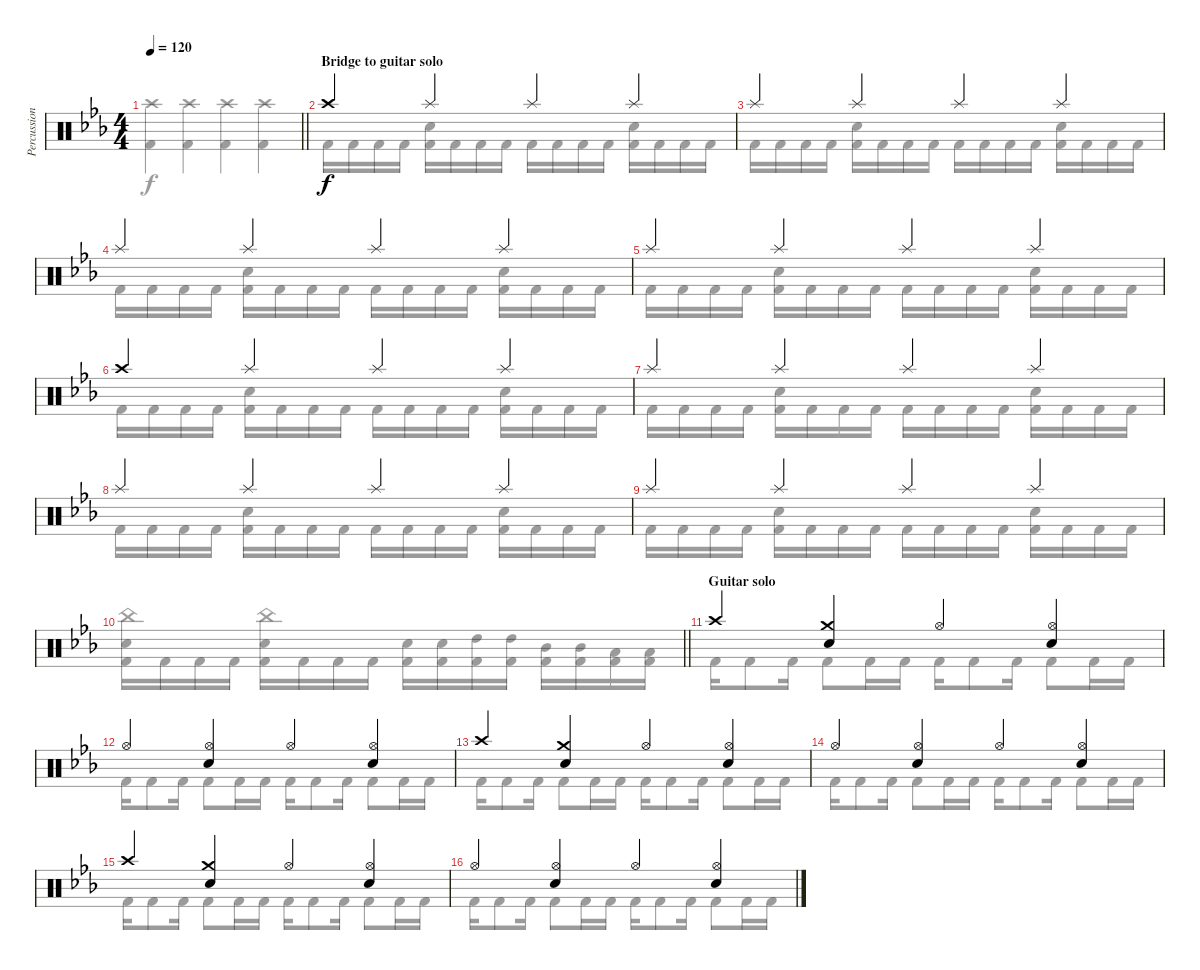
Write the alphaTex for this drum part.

\track ("Percussion" "Percussion") {instrument percussion}
\staff {score}
\articulation defaults
\voice
\ts (4 4)
\tempo 120
\clef neutral
\barLineRight lightlight
\ks cminor
|
\section ("" "Bridge to guitar solo")
"Crash high (hit)".4 "Splash (hit)".4 "Splash (hit)".4 "Splash (hit)".4 |
"Splash (hit)".4 "Splash (hit)".4 "Splash (hit)".4 "Splash (hit)".4 |
"Splash (hit)".4 "Splash (hit)".4 "Splash (hit)".4 "Splash (hit)".4 |
"Splash (hit)".4 "Splash (hit)".4 "Splash (hit)".4 "Splash (hit)".4 |
"Crash high (hit)".4 "Splash (hit)".4 "Splash (hit)".4 "Splash (hit)".4 |
"Splash (hit)".4 "Splash (hit)".4 "Splash (hit)".4 "Splash (hit)".4 |
"Splash (hit)".4 "Splash (hit)".4 "Splash (hit)".4 "Splash (hit)".4 |
"Splash (hit)".4 "Splash (hit)".4 "Splash (hit)".4 "Splash (hit)".4 |
\barLineRight lightlight
|
\section ("" "Guitar solo")
"Crash high (hit)".4 ("Crash medium (hit)" "Snare (hit) 2").4 "Hi-Hat (open)".4 ("Hi-Hat (open)" "Snare (hit) 2").4 |
"Hi-Hat (open)".4 ("Hi-Hat (open)" "Snare (hit) 2").4 "Hi-Hat (open)".4 ("Hi-Hat (open)" "Snare (hit) 2").4 |
"Crash high (hit)".4 ("Crash medium (hit)" "Snare (hit) 2").4 "Hi-Hat (open)".4 ("Hi-Hat (open)" "Snare (hit) 2").4 |
"Hi-Hat (open)".4 ("Hi-Hat (open)" "Snare (hit) 2").4 "Hi-Hat (open)".4 ("Hi-Hat (open)" "Snare (hit) 2").4 |
"Crash high (hit)".4 ("Crash medium (hit)" "Snare (hit) 2").4 "Hi-Hat (open)".4 ("Hi-Hat (open)" "Snare (hit) 2").4 |
"Hi-Hat (open)".4 ("Hi-Hat (open)" "Snare (hit) 2").4 "Hi-Hat (open)".4 ("Hi-Hat (open)" "Snare (hit) 2").4
\voice
\clef neutral
\ottava regular
\simile none
\barLineRight lightlight
\ks cminor
("Crash high (hit)" "Kick (hit) 2").4{dy f} ("Crash high (hit)" "Kick (hit) 2").4 ("Crash high (hit)" "Kick (hit) 2").4 ("Crash high (hit)" "Kick (hit) 2").4 |
"Kick (hit) 2".16 "Kick (hit) 2".16 "Kick (hit) 2".16 "Kick (hit) 2".16 ("Snare (hit) 2" "Kick (hit) 2").16 "Kick (hit) 2".16 "Kick (hit) 2".16 "Kick (hit) 2".16 "Kick (hit) 2".16 "Kick (hit) 2".16 "Kick (hit) 2".16 "Kick (hit) 2".16 ("Snare (hit) 2" "Kick (hit) 2").16 "Kick (hit) 2".16 "Kick (hit) 2".16 "Kick (hit) 2".16 |
"Kick (hit) 2".16 "Kick (hit) 2".16 "Kick (hit) 2".16 "Kick (hit) 2".16 ("Snare (hit) 2" "Kick (hit) 2").16 "Kick (hit) 2".16 "Kick (hit) 2".16 "Kick (hit) 2".16 "Kick (hit) 2".16 "Kick (hit) 2".16 "Kick (hit) 2".16 "Kick (hit) 2".16 ("Snare (hit) 2" "Kick (hit) 2").16 "Kick (hit) 2".16 "Kick (hit) 2".16 "Kick (hit) 2".16 |
"Kick (hit) 2".16 "Kick (hit) 2".16 "Kick (hit) 2".16 "Kick (hit) 2".16 ("Snare (hit) 2" "Kick (hit) 2").16 "Kick (hit) 2".16 "Kick (hit) 2".16 "Kick (hit) 2".16 "Kick (hit) 2".16 "Kick (hit) 2".16 "Kick (hit) 2".16 "Kick (hit) 2".16 ("Snare (hit) 2" "Kick (hit) 2").16 "Kick (hit) 2".16 "Kick (hit) 2".16 "Kick (hit) 2".16 |
"Kick (hit) 2".16 "Kick (hit) 2".16 "Kick (hit) 2".16 "Kick (hit) 2".16 ("Snare (hit) 2" "Kick (hit) 2").16 "Kick (hit) 2".16 "Kick (hit) 2".16 "Kick (hit) 2".16 "Kick (hit) 2".16 "Kick (hit) 2".16 "Kick (hit) 2".16 "Kick (hit) 2".16 ("Snare (hit) 2" "Kick (hit) 2").16 "Kick (hit) 2".16 "Kick (hit) 2".16 "Kick (hit) 2".16 |
"Kick (hit) 2".16 "Kick (hit) 2".16 "Kick (hit) 2".16 "Kick (hit) 2".16 ("Snare (hit) 2" "Kick (hit) 2").16 "Kick (hit) 2".16 "Kick (hit) 2".16 "Kick (hit) 2".16 "Kick (hit) 2".16 "Kick (hit) 2".16 "Kick (hit) 2".16 "Kick (hit) 2".16 ("Snare (hit) 2" "Kick (hit) 2").16 "Kick (hit) 2".16 "Kick (hit) 2".16 "Kick (hit) 2".16 |
"Kick (hit) 2".16 "Kick (hit) 2".16 "Kick (hit) 2".16 "Kick (hit) 2".16 ("Snare (hit) 2" "Kick (hit) 2").16 "Kick (hit) 2".16 "Kick (hit) 2".16 "Kick (hit) 2".16 "Kick (hit) 2".16 "Kick (hit) 2".16 "Kick (hit) 2".16 "Kick (hit) 2".16 ("Snare (hit) 2" "Kick (hit) 2").16 "Kick (hit) 2".16 "Kick (hit) 2".16 "Kick (hit) 2".16 |
"Kick (hit) 2".16 "Kick (hit) 2".16 "Kick (hit) 2".16 "Kick (hit) 2".16 ("Snare (hit) 2" "Kick (hit) 2").16 "Kick (hit) 2".16 "Kick (hit) 2".16 "Kick (hit) 2".16 "Kick (hit) 2".16 "Kick (hit) 2".16 "Kick (hit) 2".16 "Kick (hit) 2".16 ("Snare (hit) 2" "Kick (hit) 2").16 "Kick (hit) 2".16 "Kick (hit) 2".16 "Kick (hit) 2".16 |
"Kick (hit) 2".16 "Kick (hit) 2".16 "Kick (hit) 2".16 "Kick (hit) 2".16 ("Snare (hit) 2" "Kick (hit) 2").16 "Kick (hit) 2".16 "Kick (hit) 2".16 "Kick (hit) 2".16 "Kick (hit) 2".16 "Kick (hit) 2".16 "Kick (hit) 2".16 "Kick (hit) 2".16 ("Snare (hit) 2" "Kick (hit) 2").16 "Kick (hit) 2".16 "Kick (hit) 2".16 "Kick (hit) 2".16 |
\barLineRight lightlight
("China (hit)" "Snare (hit) 2" "Kick (hit) 2").16 "Kick (hit) 2".16 "Kick (hit) 2".16 "Kick (hit) 2".16 ("China (hit)" "Snare (hit) 2" "Kick (hit) 2").16 "Kick (hit) 2".16 "Kick (hit) 2".16 "Kick (hit) 2".16 ("Snare (hit) 2" "Kick (hit) 2").16 ("Snare (hit) 2" "Kick (hit) 2").16 ("High Tom (hit)" "Kick (hit) 2").16 ("High Tom (hit)" "Kick (hit) 2").16 ("Mid Tom (hit)" "Kick (hit) 2").16 ("Mid Tom (hit)" "Kick (hit) 2").16 ("Low Tom (hit)" "Kick (hit) 2").16 ("Low Tom (hit)" "Kick (hit) 2").16 |
"Kick (hit) 2".16 "Kick (hit) 2".8 "Kick (hit) 2".16 "Kick (hit) 2".8 "Kick (hit) 2".16 "Kick (hit) 2".16 "Kick (hit) 2".16 "Kick (hit) 2".8 "Kick (hit) 2".16 "Kick (hit) 2".8 "Kick (hit) 2".16 "Kick (hit) 2".16 |
"Kick (hit) 2".16 "Kick (hit) 2".8 "Kick (hit) 2".16 "Kick (hit) 2".8 "Kick (hit) 2".16 "Kick (hit) 2".16 "Kick (hit) 2".16 "Kick (hit) 2".8 "Kick (hit) 2".16 "Kick (hit) 2".8 "Kick (hit) 2".16 "Kick (hit) 2".16 |
"Kick (hit) 2".16 "Kick (hit) 2".8 "Kick (hit) 2".16 "Kick (hit) 2".8 "Kick (hit) 2".16 "Kick (hit) 2".16 "Kick (hit) 2".16 "Kick (hit) 2".8 "Kick (hit) 2".16 "Kick (hit) 2".8 "Kick (hit) 2".16 "Kick (hit) 2".16 |
"Kick (hit) 2".16 "Kick (hit) 2".8 "Kick (hit) 2".16 "Kick (hit) 2".8 "Kick (hit) 2".16 "Kick (hit) 2".16 "Kick (hit) 2".16 "Kick (hit) 2".8 "Kick (hit) 2".16 "Kick (hit) 2".8 "Kick (hit) 2".16 "Kick (hit) 2".16 |
"Kick (hit) 2".16 "Kick (hit) 2".8 "Kick (hit) 2".16 "Kick (hit) 2".8 "Kick (hit) 2".16 "Kick (hit) 2".16 "Kick (hit) 2".16 "Kick (hit) 2".8 "Kick (hit) 2".16 "Kick (hit) 2".8 "Kick (hit) 2".16 "Kick (hit) 2".16 |
"Kick (hit) 2".16 "Kick (hit) 2".8 "Kick (hit) 2".16 "Kick (hit) 2".8 "Kick (hit) 2".16 "Kick (hit) 2".16 "Kick (hit) 2".16 "Kick (hit) 2".8 "Kick (hit) 2".16 "Kick (hit) 2".8 "Kick (hit) 2".16 "Kick (hit) 2".16
